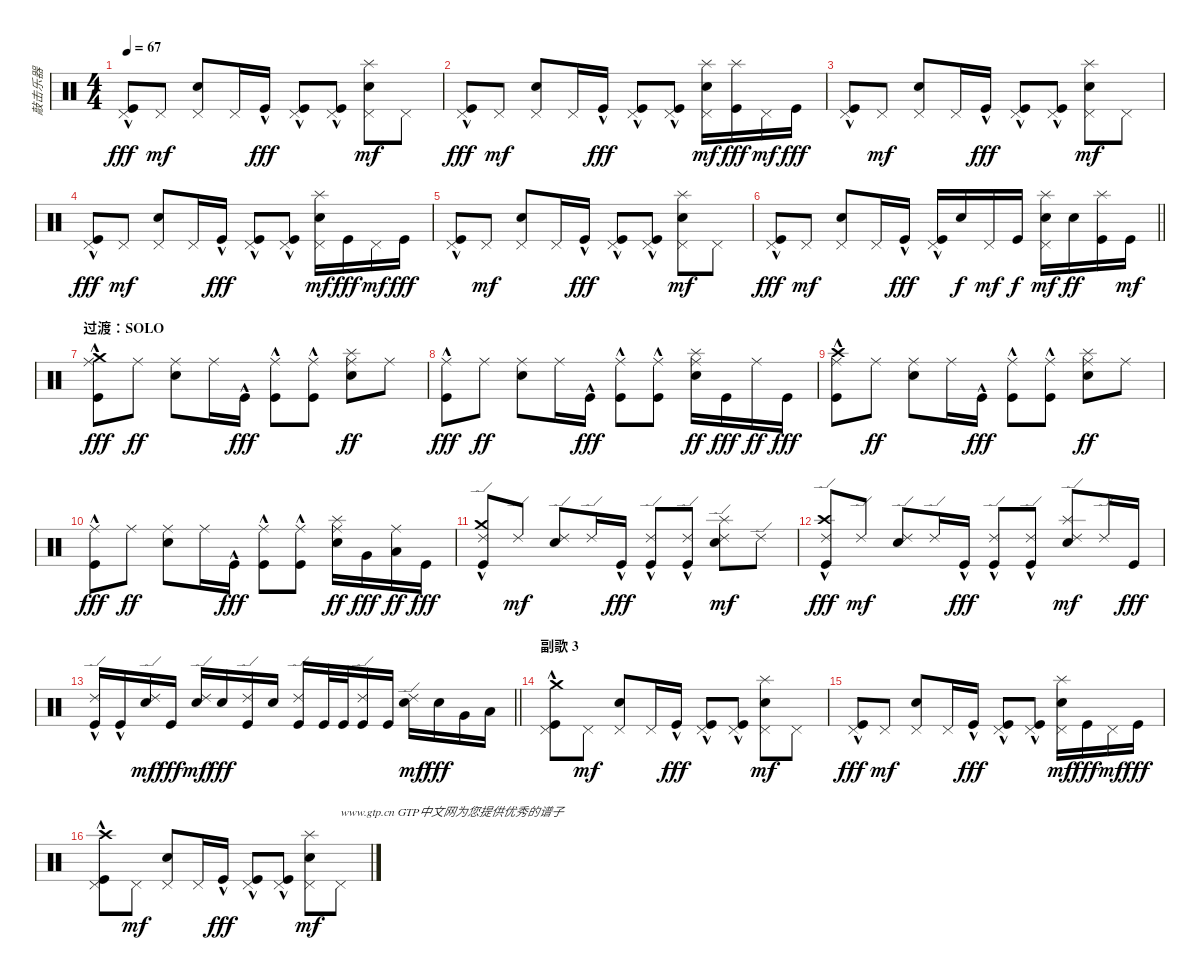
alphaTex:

\track ("敲击乐器" "敲击乐器") {instrument percussion}
\staff {score}
\articulation defaults
\ts (4 4)
\tempo 67
\clef neutral
\ks c
("Pedal Hi-Hat (hit)" "Kick (hit)"{hac}).8{dy fff} "Pedal Hi-Hat (hit)".8{dy mf} ("Electric Snare (hit)" "Pedal Hi-Hat (hit)").8 "Pedal Hi-Hat (hit)".16 "Kick (hit)"{hac}.16{dy fff} ("Pedal Hi-Hat (hit)" "Kick (hit)"{hac}).8 ("Pedal Hi-Hat (hit)" "Kick (hit)"{hac}).8 ("Splash (hit)" "Electric Snare (hit)" "Pedal Hi-Hat (hit)").8{dy mf} "Pedal Hi-Hat (hit)".8 |
("Pedal Hi-Hat (hit)" "Kick (hit)"{hac}).8{dy fff} "Pedal Hi-Hat (hit)".8{dy mf} ("Electric Snare (hit)" "Pedal Hi-Hat (hit)").8 "Pedal Hi-Hat (hit)".16 "Kick (hit)"{hac}.16{dy fff} ("Pedal Hi-Hat (hit)" "Kick (hit)"{hac}).8 ("Pedal Hi-Hat (hit)" "Kick (hit)"{hac}).8 ("Splash (hit)" "Electric Snare (hit)" "Pedal Hi-Hat (hit)").16{dy mf} ("Splash (hit)" "Kick (hit)").16{dy fff} "Pedal Hi-Hat (hit)".16{dy mf} "Kick (hit)".16{dy fff} |
("Pedal Hi-Hat (hit)" "Kick (hit)"{hac}).8 "Pedal Hi-Hat (hit)".8{dy mf} ("Electric Snare (hit)" "Pedal Hi-Hat (hit)").8 "Pedal Hi-Hat (hit)".16 "Kick (hit)"{hac}.16{dy fff} ("Pedal Hi-Hat (hit)" "Kick (hit)"{hac}).8 ("Pedal Hi-Hat (hit)" "Kick (hit)"{hac}).8 ("Splash (hit)" "Electric Snare (hit)" "Pedal Hi-Hat (hit)").8{dy mf} "Pedal Hi-Hat (hit)".8 |
("Pedal Hi-Hat (hit)" "Kick (hit)"{hac}).8{dy fff} "Pedal Hi-Hat (hit)".8{dy mf} ("Electric Snare (hit)" "Pedal Hi-Hat (hit)").8 "Pedal Hi-Hat (hit)".16 "Kick (hit)"{hac}.16{dy fff} ("Pedal Hi-Hat (hit)" "Kick (hit)"{hac}).8 ("Pedal Hi-Hat (hit)" "Kick (hit)"{hac}).8 ("Splash (hit)" "Electric Snare (hit)" "Pedal Hi-Hat (hit)").16{dy mf} "Kick (hit)".16{dy fff} "Pedal Hi-Hat (hit)".16{dy mf} "Kick (hit)".16{dy fff} |
("Pedal Hi-Hat (hit)" "Kick (hit)"{hac}).8 "Pedal Hi-Hat (hit)".8{dy mf} ("Electric Snare (hit)" "Pedal Hi-Hat (hit)").8 "Pedal Hi-Hat (hit)".16 "Kick (hit)"{hac}.16{dy fff} ("Pedal Hi-Hat (hit)" "Kick (hit)"{hac}).8 ("Pedal Hi-Hat (hit)" "Kick (hit)"{hac}).8 ("Splash (hit)" "Electric Snare (hit)" "Pedal Hi-Hat (hit)").8{dy mf} "Pedal Hi-Hat (hit)".8 |
\barLineRight lightlight
("Pedal Hi-Hat (hit)" "Kick (hit)"{hac}).8{dy fff} "Pedal Hi-Hat (hit)".8{dy mf} ("Electric Snare (hit)" "Pedal Hi-Hat (hit)").8 "Pedal Hi-Hat (hit)".16 "Kick (hit)"{hac}.16{dy fff} ("Pedal Hi-Hat (hit)" "Kick (hit)"{hac}).16 "Electric Snare (hit)".16{dy f} "Pedal Hi-Hat (hit)".16{dy mf} "Kick (hit)".16{dy f} ("Splash (hit)" "Electric Snare (hit)" "Pedal Hi-Hat (hit)").16{dy mf} "Electric Snare (hit)".16{dy ff} ("Splash (hit)" "Kick (hit)").16 "Kick (hit)".16{dy mf} |
\section ("" "过渡：SOLO")
("Crash medium (hit)" "Ride (middle)" "Kick (hit)"{hac}).8{dy fff} "Ride (middle)".8{dy ff} ("Electric Snare (hit)" "Ride (middle)").8 "Ride (middle)".16 "Kick (hit)"{hac}.16{dy fff} ("Ride (middle)" "Kick (hit)"{hac}).8 ("Ride (middle)" "Kick (hit)"{hac}).8 ("Splash (hit)" "Electric Snare (hit)" "Ride (middle)").8{dy ff} "Ride (middle)".8 |
("Ride (middle)" "Kick (hit)"{hac}).8{dy fff} "Ride (middle)".8{dy ff} ("Electric Snare (hit)" "Ride (middle)").8 "Ride (middle)".16 "Kick (hit)"{hac}.16{dy fff} ("Ride (middle)" "Kick (hit)"{hac}).8 ("Ride (middle)" "Kick (hit)"{hac}).8 ("Splash (hit)" "Electric Snare (hit)" "Ride (middle)").16{dy ff} "Kick (hit)".16{dy fff} "Ride (middle)".16{dy ff} "Kick (hit)".16{dy fff} |
("Crash high (hit)" "Ride (middle)" "Kick (hit)"{hac}).8 "Ride (middle)".8{dy ff} ("Electric Snare (hit)" "Ride (middle)").8 "Ride (middle)".16 "Kick (hit)"{hac}.16{dy fff} ("Ride (middle)" "Kick (hit)"{hac}).8 ("Ride (middle)" "Kick (hit)"{hac}).8 ("Splash (hit)" "Electric Snare (hit)" "Ride (middle)").8{dy ff} "Ride (middle)".8 |
("Ride (middle)" "Kick (hit)"{hac}).8{dy fff} "Ride (middle)".8{dy ff} ("Electric Snare (hit)" "Ride (middle)").8 "Ride (middle)".16 "Kick (hit)"{hac}.16{dy fff} ("Ride (middle)" "Kick (hit)"{hac}).8 ("Ride (middle)" "Kick (hit)"{hac}).8 ("Splash (hit)" "Electric Snare (hit)" "Ride (middle)").16{dy ff} "Very Low Tom (hit)".16{dy fff} ("Low Floor Tom (hit)" "Ride (middle)").16{dy ff} "Kick (hit)".16{dy fff} |
("Crash medium (hit)" "Ride (edge) 2" "Kick (hit)"{hac}).8 "Ride (edge) 2".8{dy mf} ("Electric Snare (hit)" "Ride (edge) 2").8 "Ride (edge) 2".16 "Kick (hit)"{hac}.16{dy fff} ("Ride (edge) 2" "Kick (hit)"{hac}).8 ("Ride (edge) 2" "Kick (hit)"{hac}).8 ("Splash (hit)" "Electric Snare (hit)" "Ride (edge) 2").8{dy mf} "Ride (edge) 2".8 |
("Crash high (hit)" "Ride (edge) 2" "Kick (hit)"{hac}).8{dy fff} "Ride (edge) 2".8{dy mf} ("Electric Snare (hit)" "Ride (edge) 2").8 "Ride (edge) 2".16 "Kick (hit)"{hac}.16{dy fff} ("Ride (edge) 2" "Kick (hit)"{hac}).8 ("Ride (edge) 2" "Kick (hit)"{hac}).8 ("Splash (hit)" "Electric Snare (hit)" "Ride (edge) 2").8{dy mf} "Ride (edge) 2".16 "Kick (hit)".16{dy fff} |
\barLineRight lightlight
("Ride (edge) 2" "Kick (hit)"{hac}).16 "Kick (hit)"{hac}.16 ("Electric Snare (hit)" "Ride (edge) 2").16{dy mf} "Kick (hit)".16{dy fff} ("Electric Snare (hit)" "Ride (edge) 2").16{dy mf} "Electric Snare (hit)".16{dy fff} ("Ride (edge) 2" "Kick (hit)").16 "Electric Snare (hit)".16 ("Ride (edge) 2" "Kick (hit)").16 "Kick (hit)".32 "Kick (hit)".32 ("Ride (edge) 2" "Kick (hit)").16 "Kick (hit)".16 ("Electric Snare (hit)" "Ride (edge) 2").16{dy mf} "Electric Snare (hit)".16{dy fff} "Very Low Tom (hit)".16 "Low Floor Tom (hit)".16 |
\section ("" "副歌 3")
("Crash medium (hit)" "Pedal Hi-Hat (hit)" "Kick (hit)"{hac}).8 "Pedal Hi-Hat (hit)".8{dy mf} ("Electric Snare (hit)" "Pedal Hi-Hat (hit)").8 "Pedal Hi-Hat (hit)".16 "Kick (hit)"{hac}.16{dy fff} ("Pedal Hi-Hat (hit)" "Kick (hit)"{hac}).8 ("Pedal Hi-Hat (hit)" "Kick (hit)"{hac}).8 ("Splash (hit)" "Electric Snare (hit)" "Pedal Hi-Hat (hit)").8{dy mf} "Pedal Hi-Hat (hit)".8 |
("Pedal Hi-Hat (hit)" "Kick (hit)"{hac}).8{dy fff} "Pedal Hi-Hat (hit)".8{dy mf} ("Electric Snare (hit)" "Pedal Hi-Hat (hit)").8 "Pedal Hi-Hat (hit)".16 "Kick (hit)"{hac}.16{dy fff} ("Pedal Hi-Hat (hit)" "Kick (hit)"{hac}).8 ("Pedal Hi-Hat (hit)" "Kick (hit)"{hac}).8 ("Splash (hit)" "Electric Snare (hit)" "Pedal Hi-Hat (hit)").16{dy mf} "Kick (hit)".16{dy fff} "Pedal Hi-Hat (hit)".16{dy mf} "Kick (hit)".16{dy fff} |
("Crash high (hit)" "Pedal Hi-Hat (hit)" "Kick (hit)"{hac}).8 "Pedal Hi-Hat (hit)".8{dy mf} ("Electric Snare (hit)" "Pedal Hi-Hat (hit)").8 "Pedal Hi-Hat (hit)".16 "Kick (hit)"{hac}.16{dy fff} ("Pedal Hi-Hat (hit)" "Kick (hit)"{hac}).8 ("Pedal Hi-Hat (hit)" "Kick (hit)"{hac}).8 ("Splash (hit)" "Electric Snare (hit)" "Pedal Hi-Hat (hit)").8{dy mf} "Pedal Hi-Hat (hit)".8{txt "www.gtp.cn GTP中文网为您提供优秀的谱子"}
